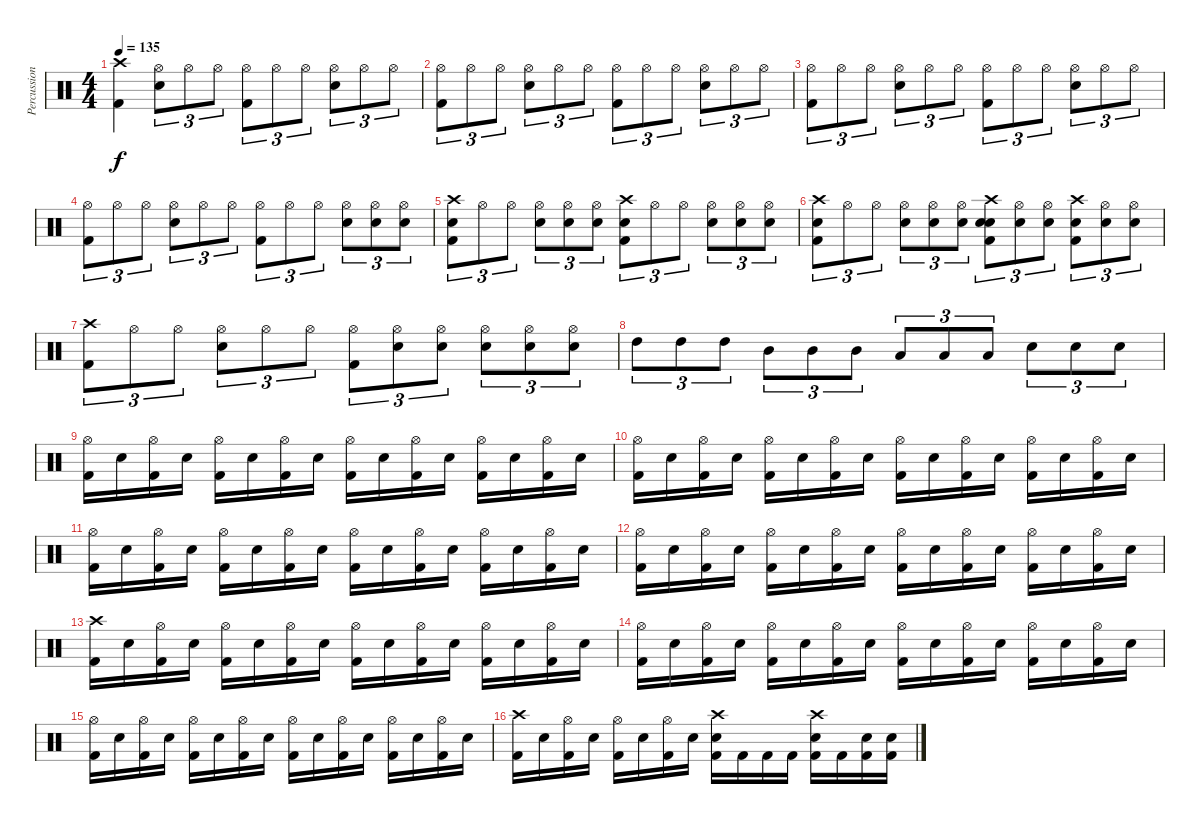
\track ("Percussions" "Percussion") {instrument percussion}
\staff {score}
\articulation defaults
\ts (4 4)
\tempo 135
\clef neutral
\ks c
("Crash high (hit)" "Kick (hit) 2").4{dy f} ("Hi-Hat (open)" "Electric Snare (hit)").8{tu (3 2)} "Hi-Hat (open)".8{tu (3 2)} "Hi-Hat (open)".8{tu (3 2)} ("Hi-Hat (open)" "Kick (hit) 2").8{tu (3 2)} "Hi-Hat (open)".8{tu (3 2)} "Hi-Hat (open)".8{tu (3 2)} ("Hi-Hat (open)" "Electric Snare (hit)").8{tu (3 2)} "Hi-Hat (open)".8{tu (3 2)} "Hi-Hat (open)".8{tu (3 2)} |
("Hi-Hat (open)" "Kick (hit) 2").8{tu (3 2)} "Hi-Hat (open)".8{tu (3 2)} "Hi-Hat (open)".8{tu (3 2)} ("Hi-Hat (open)" "Electric Snare (hit)").8{tu (3 2)} "Hi-Hat (open)".8{tu (3 2)} "Hi-Hat (open)".8{tu (3 2)} ("Hi-Hat (open)" "Kick (hit) 2").8{tu (3 2)} "Hi-Hat (open)".8{tu (3 2)} "Hi-Hat (open)".8{tu (3 2)} ("Hi-Hat (open)" "Electric Snare (hit)").8{tu (3 2)} "Hi-Hat (open)".8{tu (3 2)} "Hi-Hat (open)".8{tu (3 2)} |
("Hi-Hat (open)" "Kick (hit) 2").8{tu (3 2)} "Hi-Hat (open)".8{tu (3 2)} "Hi-Hat (open)".8{tu (3 2)} ("Hi-Hat (open)" "Electric Snare (hit)").8{tu (3 2)} "Hi-Hat (open)".8{tu (3 2)} "Hi-Hat (open)".8{tu (3 2)} ("Hi-Hat (open)" "Kick (hit) 2").8{tu (3 2)} "Hi-Hat (open)".8{tu (3 2)} "Hi-Hat (open)".8{tu (3 2)} ("Hi-Hat (open)" "Electric Snare (hit)").8{tu (3 2)} "Hi-Hat (open)".8{tu (3 2)} "Hi-Hat (open)".8{tu (3 2)} |
("Hi-Hat (open)" "Kick (hit) 2").8{tu (3 2)} "Hi-Hat (open)".8{tu (3 2)} "Hi-Hat (open)".8{tu (3 2)} ("Hi-Hat (open)" "Electric Snare (hit)").8{tu (3 2)} "Hi-Hat (open)".8{tu (3 2)} "Hi-Hat (open)".8{tu (3 2)} ("Hi-Hat (open)" "Kick (hit) 2").8{tu (3 2)} "Hi-Hat (open)".8{tu (3 2)} "Hi-Hat (open)".8{tu (3 2)} ("Hi-Hat (open)" "Electric Snare (hit)").8{tu (3 2)} ("Hi-Hat (open)" "Electric Snare (hit)").8{tu (3 2)} ("Hi-Hat (open)" "Electric Snare (hit)").8{tu (3 2)} |
("Crash high (hit)" "Electric Snare (hit)" "Kick (hit) 2").8{tu (3 2)} "Hi-Hat (open)".8{tu (3 2)} "Hi-Hat (open)".8{tu (3 2)} ("Hi-Hat (open)" "Electric Snare (hit)").8{tu (3 2)} ("Hi-Hat (open)" "Electric Snare (hit)").8{tu (3 2)} ("Hi-Hat (open)" "Electric Snare (hit)").8{tu (3 2)} ("Crash high (hit)" "Electric Snare (hit)" "Kick (hit) 2").8{tu (3 2)} "Hi-Hat (open)".8{tu (3 2)} "Hi-Hat (open)".8{tu (3 2)} ("Hi-Hat (open)" "Electric Snare (hit)").8{tu (3 2)} ("Hi-Hat (open)" "Electric Snare (hit)").8{tu (3 2)} ("Hi-Hat (open)" "Electric Snare (hit)").8{tu (3 2)} |
("Crash high (hit)" "Electric Snare (hit)" "Kick (hit) 2").8{tu (3 2)} "Hi-Hat (open)".8{tu (3 2)} "Hi-Hat (open)".8{tu (3 2)} ("Hi-Hat (open)" "Electric Snare (hit)").8{tu (3 2)} ("Hi-Hat (open)" "Electric Snare (hit)").8{tu (3 2)} ("Hi-Hat (open)" "Electric Snare (hit)").8{tu (3 2)} ("Crash high (hit)" "Electric Snare (hit)" "Electric Snare (hit)" "Kick (hit) 2").8{tu (3 2)} ("Hi-Hat (open)" "Electric Snare (hit)").8{tu (3 2)} ("Hi-Hat (open)" "Electric Snare (hit)").8{tu (3 2)} ("Crash high (hit)" "Electric Snare (hit)" "Kick (hit) 2").8{tu (3 2)} ("Hi-Hat (open)" "Electric Snare (hit)").8{tu (3 2)} ("Hi-Hat (open)" "Electric Snare (hit)").8{tu (3 2)} |
("Crash high (hit)" "Kick (hit) 2").8{tu (3 2)} "Hi-Hat (open)".8{tu (3 2)} "Hi-Hat (open)".8{tu (3 2)} ("Hi-Hat (open)" "Electric Snare (hit)").8{tu (3 2)} "Hi-Hat (open)".8{tu (3 2)} "Hi-Hat (open)".8{tu (3 2)} ("Hi-Hat (open)" "Kick (hit) 2").8{tu (3 2)} ("Hi-Hat (open)" "Electric Snare (hit)").8{tu (3 2)} ("Hi-Hat (open)" "Electric Snare (hit)").8{tu (3 2)} ("Hi-Hat (open)" "Electric Snare (hit)").8{tu (3 2)} ("Hi-Hat (open)" "Electric Snare (hit)").8{tu (3 2)} ("Hi-Hat (open)" "Electric Snare (hit)").8{tu (3 2)} |
"High Tom (hit)".8{tu (3 2)} "High Tom (hit)".8{tu (3 2)} "High Tom (hit)".8{tu (3 2)} "Mid Tom (hit)".8{tu (3 2)} "Mid Tom (hit)".8{tu (3 2)} "Mid Tom (hit)".8{tu (3 2)} "Low Tom (hit)".8{tu (3 2)} "Low Tom (hit)".8{tu (3 2)} "Low Tom (hit)".8{tu (3 2)} "Electric Snare (hit)".8{tu (3 2)} "Electric Snare (hit)".8{tu (3 2)} "Electric Snare (hit)".8{tu (3 2)} |
("Hi-Hat (open)" "Kick (hit) 2").16 "Electric Snare (hit)".16 ("Hi-Hat (open)" "Kick (hit) 2").16 "Electric Snare (hit)".16 ("Hi-Hat (open)" "Kick (hit) 2").16 "Electric Snare (hit)".16 ("Hi-Hat (open)" "Kick (hit) 2").16 "Electric Snare (hit)".16 ("Hi-Hat (open)" "Kick (hit) 2").16 "Electric Snare (hit)".16 ("Hi-Hat (open)" "Kick (hit) 2").16 "Electric Snare (hit)".16 ("Hi-Hat (open)" "Kick (hit) 2").16 "Electric Snare (hit)".16 ("Hi-Hat (open)" "Kick (hit) 2").16 "Electric Snare (hit)".16 |
("Hi-Hat (open)" "Kick (hit) 2").16 "Electric Snare (hit)".16 ("Hi-Hat (open)" "Kick (hit) 2").16 "Electric Snare (hit)".16 ("Hi-Hat (open)" "Kick (hit) 2").16 "Electric Snare (hit)".16 ("Hi-Hat (open)" "Kick (hit) 2").16 "Electric Snare (hit)".16 ("Hi-Hat (open)" "Kick (hit) 2").16 "Electric Snare (hit)".16 ("Hi-Hat (open)" "Kick (hit) 2").16 "Electric Snare (hit)".16 ("Hi-Hat (open)" "Kick (hit) 2").16 "Electric Snare (hit)".16 ("Hi-Hat (open)" "Kick (hit) 2").16 "Electric Snare (hit)".16 |
("Hi-Hat (open)" "Kick (hit) 2").16 "Electric Snare (hit)".16 ("Hi-Hat (open)" "Kick (hit) 2").16 "Electric Snare (hit)".16 ("Hi-Hat (open)" "Kick (hit) 2").16 "Electric Snare (hit)".16 ("Hi-Hat (open)" "Kick (hit) 2").16 "Electric Snare (hit)".16 ("Hi-Hat (open)" "Kick (hit) 2").16 "Electric Snare (hit)".16 ("Hi-Hat (open)" "Kick (hit) 2").16 "Electric Snare (hit)".16 ("Hi-Hat (open)" "Kick (hit) 2").16 "Electric Snare (hit)".16 ("Hi-Hat (open)" "Kick (hit) 2").16 "Electric Snare (hit)".16 |
("Hi-Hat (open)" "Kick (hit) 2").16 "Electric Snare (hit)".16 ("Hi-Hat (open)" "Kick (hit) 2").16 "Electric Snare (hit)".16 ("Hi-Hat (open)" "Kick (hit) 2").16 "Electric Snare (hit)".16 ("Hi-Hat (open)" "Kick (hit) 2").16 "Electric Snare (hit)".16 ("Hi-Hat (open)" "Kick (hit) 2").16 "Electric Snare (hit)".16 ("Hi-Hat (open)" "Kick (hit) 2").16 "Electric Snare (hit)".16 ("Hi-Hat (open)" "Kick (hit) 2").16 "Electric Snare (hit)".16 ("Hi-Hat (open)" "Kick (hit) 2").16 "Electric Snare (hit)".16 |
("Crash high (hit)" "Kick (hit) 2").16 "Electric Snare (hit)".16 ("Hi-Hat (open)" "Kick (hit) 2").16 "Electric Snare (hit)".16 ("Hi-Hat (open)" "Kick (hit) 2").16 "Electric Snare (hit)".16 ("Hi-Hat (open)" "Kick (hit) 2").16 "Electric Snare (hit)".16 ("Hi-Hat (open)" "Kick (hit) 2").16 "Electric Snare (hit)".16 ("Hi-Hat (open)" "Kick (hit) 2").16 "Electric Snare (hit)".16 ("Hi-Hat (open)" "Kick (hit) 2").16 "Electric Snare (hit)".16 ("Hi-Hat (open)" "Kick (hit) 2").16 "Electric Snare (hit)".16 |
("Hi-Hat (open)" "Kick (hit) 2").16 "Electric Snare (hit)".16 ("Hi-Hat (open)" "Kick (hit) 2").16 "Electric Snare (hit)".16 ("Hi-Hat (open)" "Kick (hit) 2").16 "Electric Snare (hit)".16 ("Hi-Hat (open)" "Kick (hit) 2").16 "Electric Snare (hit)".16 ("Hi-Hat (open)" "Kick (hit) 2").16 "Electric Snare (hit)".16 ("Hi-Hat (open)" "Kick (hit) 2").16 "Electric Snare (hit)".16 ("Hi-Hat (open)" "Kick (hit) 2").16 "Electric Snare (hit)".16 ("Hi-Hat (open)" "Kick (hit) 2").16 "Electric Snare (hit)".16 |
("Hi-Hat (open)" "Kick (hit) 2").16 "Electric Snare (hit)".16 ("Hi-Hat (open)" "Kick (hit) 2").16 "Electric Snare (hit)".16 ("Hi-Hat (open)" "Kick (hit) 2").16 "Electric Snare (hit)".16 ("Hi-Hat (open)" "Kick (hit) 2").16 "Electric Snare (hit)".16 ("Hi-Hat (open)" "Kick (hit) 2").16 "Electric Snare (hit)".16 ("Hi-Hat (open)" "Kick (hit) 2").16 "Electric Snare (hit)".16 ("Hi-Hat (open)" "Kick (hit) 2").16 "Electric Snare (hit)".16 ("Hi-Hat (open)" "Kick (hit) 2").16 "Electric Snare (hit)".16 |
("Crash high (hit)" "Kick (hit) 2").16 "Electric Snare (hit)".16 ("Hi-Hat (open)" "Kick (hit) 2").16 "Electric Snare (hit)".16 ("Hi-Hat (open)" "Kick (hit) 2").16 "Electric Snare (hit)".16 ("Hi-Hat (open)" "Kick (hit) 2").16 "Electric Snare (hit)".16 ("Crash high (hit)" "Electric Snare (hit)" "Kick (hit) 2").16 "Kick (hit) 2".16 "Kick (hit) 2".16 "Kick (hit) 2".16 ("Crash high (hit)" "Electric Snare (hit)" "Kick (hit) 2").16 "Kick (hit) 2".16 ("Electric Snare (hit)" "Kick (hit) 2").16 ("Electric Snare (hit)" "Kick (hit) 2").16
